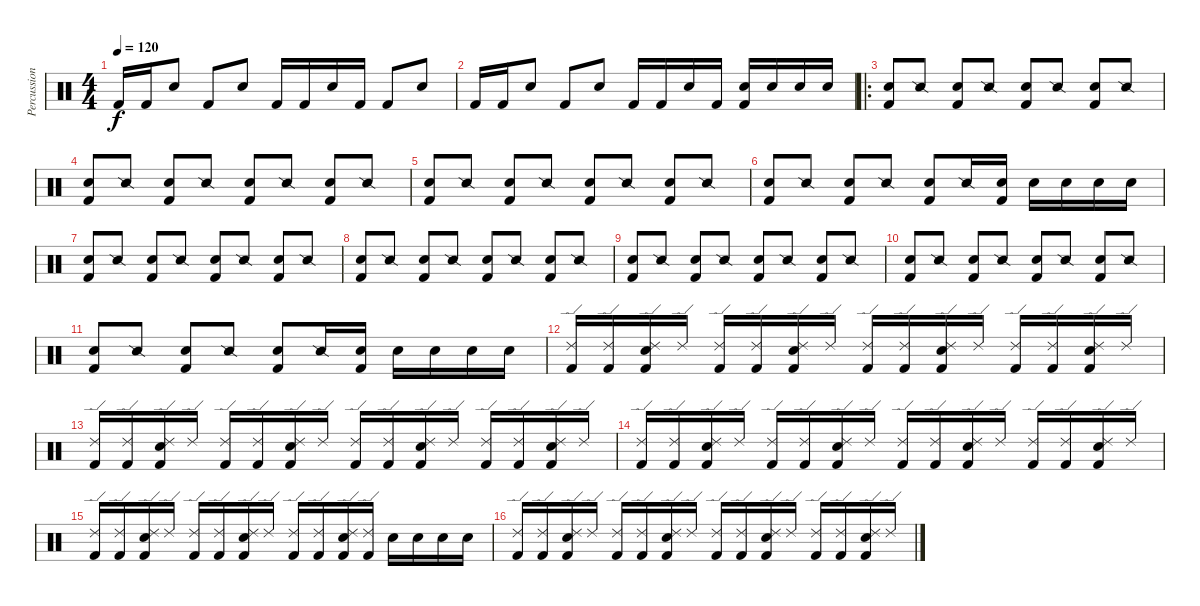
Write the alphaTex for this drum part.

\track ("Percussion" "Percussion") {instrument percussion}
\staff {score}
\articulation defaults
\ts (4 4)
\tempo 120
\clef neutral
\ks c "Kick (hit) 2".16{dy f} "Kick (hit) 2".16 "Snare (hit) 2".8 "Kick (hit) 2".8 "Snare (hit) 2".8 "Kick (hit) 2".16 "Kick (hit) 2".16 "Snare (hit) 2".16 "Kick (hit) 2".16 "Kick (hit) 2".8 "Snare (hit) 2".8
|
"Kick (hit) 2".16 "Kick (hit) 2".16 "Snare (hit) 2".8 "Kick (hit) 2".8 "Snare (hit) 2".8 "Kick (hit) 2".16 "Kick (hit) 2".16 "Snare (hit) 2".16 "Kick (hit) 2".16 ("Kick (hit) 2" "Snare (hit) 2").16 "Snare (hit) 2".16 "Snare (hit) 2".16 "Snare (hit) 2".16 |
\ro
("Kick (hit) 2" "Snare (hit) 2").8 "Snare (side stick) 2".8 ("Kick (hit) 2" "Snare (hit) 2").8 "Snare (side stick) 2".8 ("Kick (hit) 2" "Snare (hit) 2").8 "Snare (side stick) 2".8 ("Kick (hit) 2" "Snare (hit) 2").8 "Snare (side stick) 2".8 |
("Kick (hit) 2" "Snare (hit) 2").8 "Snare (side stick) 2".8 ("Kick (hit) 2" "Snare (hit) 2").8 "Snare (side stick) 2".8 ("Kick (hit) 2" "Snare (hit) 2").8 "Snare (side stick) 2".8 ("Kick (hit) 2" "Snare (hit) 2").8 "Snare (side stick) 2".8 |
("Kick (hit) 2" "Snare (hit) 2").8 "Snare (side stick) 2".8 ("Kick (hit) 2" "Snare (hit) 2").8 "Snare (side stick) 2".8 ("Kick (hit) 2" "Snare (hit) 2").8 "Snare (side stick) 2".8 ("Kick (hit) 2" "Snare (hit) 2").8 "Snare (side stick) 2".8 |
("Kick (hit) 2" "Snare (hit) 2").8 "Snare (side stick) 2".8 ("Kick (hit) 2" "Snare (hit) 2").8 "Snare (side stick) 2".8 ("Kick (hit) 2" "Snare (hit) 2").8 "Snare (side stick) 2".16 ("Kick (hit) 2" "Snare (hit) 2").16 "Snare (hit) 2".16 "Snare (hit) 2".16 "Snare (hit) 2".16 "Snare (hit) 2".16 |
("Kick (hit) 2" "Snare (hit) 2").8 "Snare (side stick) 2".8 ("Kick (hit) 2" "Snare (hit) 2").8 "Snare (side stick) 2".8 ("Kick (hit) 2" "Snare (hit) 2").8 "Snare (side stick) 2".8 ("Kick (hit) 2" "Snare (hit) 2").8 "Snare (side stick) 2".8 |
("Kick (hit) 2" "Snare (hit) 2").8 "Snare (side stick) 2".8 ("Kick (hit) 2" "Snare (hit) 2").8 "Snare (side stick) 2".8 ("Kick (hit) 2" "Snare (hit) 2").8 "Snare (side stick) 2".8 ("Kick (hit) 2" "Snare (hit) 2").8 "Snare (side stick) 2".8 |
("Kick (hit) 2" "Snare (hit) 2").8 "Snare (side stick) 2".8 ("Kick (hit) 2" "Snare (hit) 2").8 "Snare (side stick) 2".8 ("Kick (hit) 2" "Snare (hit) 2").8 "Snare (side stick) 2".8 ("Kick (hit) 2" "Snare (hit) 2").8 "Snare (side stick) 2".8 |
("Kick (hit) 2" "Snare (hit) 2").8 "Snare (side stick) 2".8 ("Kick (hit) 2" "Snare (hit) 2").8 "Snare (side stick) 2".8 ("Kick (hit) 2" "Snare (hit) 2").8 "Snare (side stick) 2".8 ("Kick (hit) 2" "Snare (hit) 2").8 "Snare (side stick) 2".8 |
("Kick (hit) 2" "Snare (hit) 2").8 "Snare (side stick) 2".8 ("Kick (hit) 2" "Snare (hit) 2").8 "Snare (side stick) 2".8 ("Kick (hit) 2" "Snare (hit) 2").8 "Snare (side stick) 2".16 ("Kick (hit) 2" "Snare (hit) 2").16 "Snare (hit) 2".16 "Snare (hit) 2".16 "Snare (hit) 2".16 "Snare (hit) 2".16 |
("Kick (hit) 2" "Ride (edge) 2").16 ("Kick (hit) 2" "Ride (edge) 2").16 ("Kick (hit) 2" "Snare (hit) 2" "Ride (edge) 2").16 "Ride (edge) 2".16 ("Kick (hit) 2" "Ride (edge) 2").16 ("Kick (hit) 2" "Ride (edge) 2").16 ("Kick (hit) 2" "Snare (hit) 2" "Ride (edge) 2").16 "Ride (edge) 2".16 ("Kick (hit) 2" "Ride (edge) 2").16 ("Kick (hit) 2" "Ride (edge) 2").16 ("Kick (hit) 2" "Snare (hit) 2" "Ride (edge) 2").16 "Ride (edge) 2".16 ("Kick (hit) 2" "Ride (edge) 2").16 ("Kick (hit) 2" "Ride (edge) 2").16 ("Kick (hit) 2" "Snare (hit) 2" "Ride (edge) 2").16 "Ride (edge) 2".16 |
("Kick (hit) 2" "Ride (edge) 2").16 ("Kick (hit) 2" "Ride (edge) 2").16 ("Kick (hit) 2" "Snare (hit) 2" "Ride (edge) 2").16 "Ride (edge) 2".16 ("Kick (hit) 2" "Ride (edge) 2").16 ("Kick (hit) 2" "Ride (edge) 2").16 ("Kick (hit) 2" "Snare (hit) 2" "Ride (edge) 2").16 "Ride (edge) 2".16 ("Kick (hit) 2" "Ride (edge) 2").16 ("Kick (hit) 2" "Ride (edge) 2").16 ("Kick (hit) 2" "Snare (hit) 2" "Ride (edge) 2").16 "Ride (edge) 2".16 ("Kick (hit) 2" "Ride (edge) 2").16 ("Kick (hit) 2" "Ride (edge) 2").16 ("Kick (hit) 2" "Snare (hit) 2" "Ride (edge) 2").16 "Ride (edge) 2".16 |
("Kick (hit) 2" "Ride (edge) 2").16 ("Kick (hit) 2" "Ride (edge) 2").16 ("Kick (hit) 2" "Snare (hit) 2" "Ride (edge) 2").16 "Ride (edge) 2".16 ("Kick (hit) 2" "Ride (edge) 2").16 ("Kick (hit) 2" "Ride (edge) 2").16 ("Kick (hit) 2" "Snare (hit) 2" "Ride (edge) 2").16 "Ride (edge) 2".16 ("Kick (hit) 2" "Ride (edge) 2").16 ("Kick (hit) 2" "Ride (edge) 2").16 ("Kick (hit) 2" "Snare (hit) 2" "Ride (edge) 2").16 "Ride (edge) 2".16 ("Kick (hit) 2" "Ride (edge) 2").16 ("Kick (hit) 2" "Ride (edge) 2").16 ("Kick (hit) 2" "Snare (hit) 2" "Ride (edge) 2").16 "Ride (edge) 2".16 |
("Kick (hit) 2" "Ride (edge) 2").16 ("Kick (hit) 2" "Ride (edge) 2").16 ("Kick (hit) 2" "Snare (hit) 2" "Ride (edge) 2").16 "Ride (edge) 2".16 ("Kick (hit) 2" "Ride (edge) 2").16 ("Kick (hit) 2" "Ride (edge) 2").16 ("Kick (hit) 2" "Snare (hit) 2" "Ride (edge) 2").16 "Ride (edge) 2".16 ("Kick (hit) 2" "Ride (edge) 2").16 ("Kick (hit) 2" "Ride (edge) 2").16 ("Kick (hit) 2" "Snare (hit) 2" "Ride (edge) 2").16 ("Kick (hit) 2" "Ride (edge) 2").16 "Snare (hit) 2".16 "Snare (hit) 2".16 "Snare (hit) 2".16 "Snare (hit) 2".16 |
("Kick (hit) 2" "Ride (edge) 2").16 ("Kick (hit) 2" "Ride (edge) 2").16 ("Kick (hit) 2" "Snare (hit) 2" "Ride (edge) 2").16 "Ride (edge) 2".16 ("Kick (hit) 2" "Ride (edge) 2").16 ("Kick (hit) 2" "Ride (edge) 2").16 ("Kick (hit) 2" "Snare (hit) 2" "Ride (edge) 2").16 "Ride (edge) 2".16 ("Kick (hit) 2" "Ride (edge) 2").16 ("Kick (hit) 2" "Ride (edge) 2").16 ("Kick (hit) 2" "Snare (hit) 2" "Ride (edge) 2").16 "Ride (edge) 2".16 ("Kick (hit) 2" "Ride (edge) 2").16 ("Kick (hit) 2" "Ride (edge) 2").16 ("Kick (hit) 2" "Snare (hit) 2" "Ride (edge) 2").16 "Ride (edge) 2".16
